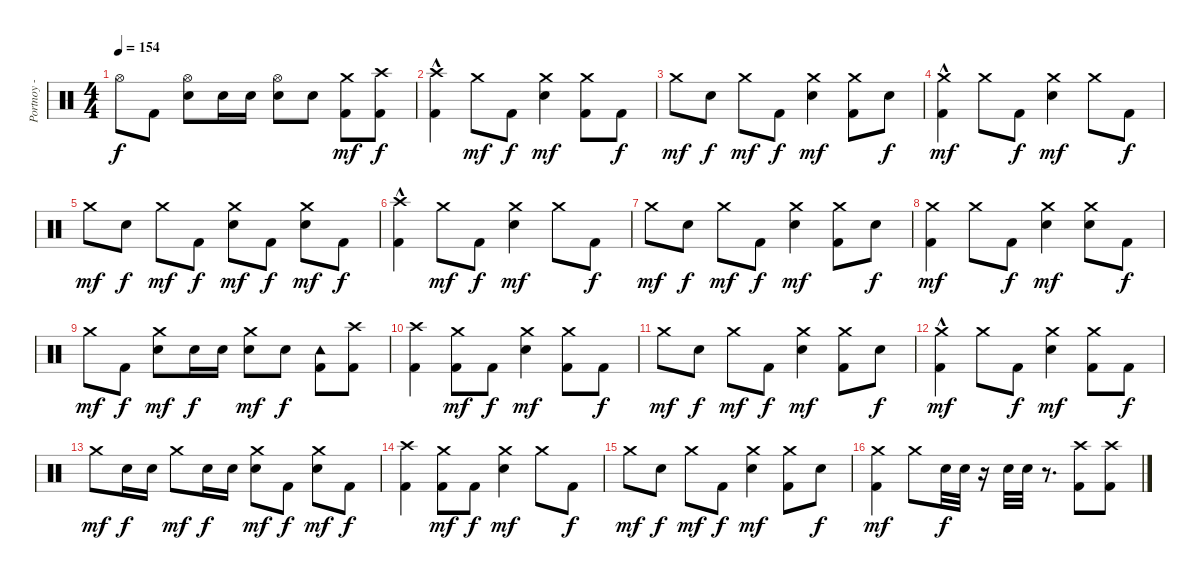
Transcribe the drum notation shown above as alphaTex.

\track ("Portnoy - Drums" "Portnoy - ") {instrument percussion}
\staff {score}
\articulation defaults
\ts (4 4)
\tempo 154
\clef neutral
\ks c "Hi-Hat (open)".8{dy f} "Kick (hit) 2".8
("Electric Snare (hit)" "Hi-Hat (open)").8 "Electric Snare (hit)".16 "Electric Snare (hit)".16 ("Electric Snare (hit)" "Hi-Hat (open)").8 "Electric Snare (hit)".8 ("Kick (hit) 2" "Crash medium (hit)").8{dy mf} ("Kick (hit) 2" "Crash high (hit)").8{dy f} |
("Kick (hit) 2"{hac} "Crash high (hit)").4 "Crash medium (hit)".8{dy mf} "Kick (hit) 2".8{dy f} ("Electric Snare (hit)" "Crash medium (hit)").4{dy mf} ("Kick (hit) 2" "Crash medium (hit)").8 "Kick (hit) 2".8{dy f} |
"Crash medium (hit)".8{dy mf} "Electric Snare (hit)".8{dy f} "Crash medium (hit)".8{dy mf} "Kick (hit) 2".8{dy f} ("Electric Snare (hit)" "Crash medium (hit)").4{dy mf} ("Kick (hit) 2" "Crash medium (hit)").8 "Electric Snare (hit)".8{dy f} |
("Kick (hit) 2"{hac} "Crash medium (hit)").4{dy mf} "Crash medium (hit)".8 "Kick (hit) 2".8{dy f} ("Electric Snare (hit)" "Crash medium (hit)").4{dy mf} "Crash medium (hit)".8 "Kick (hit) 2".8{dy f} |
"Crash medium (hit)".8{dy mf} "Electric Snare (hit)".8{dy f} "Crash medium (hit)".8{dy mf} "Kick (hit) 2".8{dy f} ("Electric Snare (hit)" "Crash medium (hit)").8{dy mf} "Kick (hit) 2".8{dy f} ("Electric Snare (hit)" "Crash medium (hit)").8{dy mf} "Kick (hit) 2".8{dy f} |
("Kick (hit) 2"{hac} "Crash high (hit)").4 "Crash medium (hit)".8{dy mf} "Kick (hit) 2".8{dy f} ("Electric Snare (hit)" "Crash medium (hit)").4{dy mf} "Crash medium (hit)".8 "Kick (hit) 2".8{dy f} |
"Crash medium (hit)".8{dy mf} "Electric Snare (hit)".8{dy f} "Crash medium (hit)".8{dy mf} "Kick (hit) 2".8{dy f} ("Electric Snare (hit)" "Crash medium (hit)").4{dy mf} ("Kick (hit) 2" "Crash medium (hit)").8 "Electric Snare (hit)".8{dy f} |
("Kick (hit) 2" "Crash medium (hit)").4{dy mf} "Crash medium (hit)".8 "Kick (hit) 2".8{dy f} ("Electric Snare (hit)" "Crash medium (hit)").4{dy mf} ("Electric Snare (hit)" "Crash medium (hit)").8 "Kick (hit) 2".8{dy f} |
"Crash medium (hit)".8{dy mf} "Kick (hit) 2".8{dy f} ("Electric Snare (hit)" "Crash medium (hit)").8{dy mf} "Electric Snare (hit)".16{dy f} "Electric Snare (hit)".16 ("Electric Snare (hit)" "Crash medium (hit)").8{dy mf} "Electric Snare (hit)".8{dy f} ("Kick (hit) 2" "Tambourine (hit)").8 ("Kick (hit) 2" "Crash high (hit)").8 |
("Crash high (hit)" "Kick (hit) 2").4 ("Kick (hit) 2" "Crash medium (hit)").8{dy mf} "Kick (hit) 2".8{dy f} ("Electric Snare (hit)" "Crash medium (hit)").4{dy mf} ("Kick (hit) 2" "Crash medium (hit)").8 "Kick (hit) 2".8{dy f} |
"Crash medium (hit)".8{dy mf} "Electric Snare (hit)".8{dy f} "Crash medium (hit)".8{dy mf} "Kick (hit) 2".8{dy f} ("Electric Snare (hit)" "Crash medium (hit)").4{dy mf} ("Kick (hit) 2" "Crash medium (hit)").8 "Electric Snare (hit)".8{dy f} |
("Kick (hit) 2"{hac} "Crash medium (hit)").4{dy mf} "Crash medium (hit)".8 "Kick (hit) 2".8{dy f} ("Electric Snare (hit)" "Crash medium (hit)").4{dy mf} ("Kick (hit) 2" "Crash medium (hit)").8 "Kick (hit) 2".8{dy f} |
"Crash medium (hit)".8{dy mf} "Electric Snare (hit)".16{dy f} "Electric Snare (hit)".16 "Crash medium (hit)".8{dy mf} "Electric Snare (hit)".16{dy f} "Electric Snare (hit)".16 ("Electric Snare (hit)" "Crash medium (hit)").8{dy mf} "Kick (hit) 2".8{dy f} ("Electric Snare (hit)" "Crash medium (hit)").8{dy mf} "Kick (hit) 2".8{dy f} |
("Crash high (hit)" "Kick (hit) 2").4 ("Kick (hit) 2" "Crash medium (hit)").8{dy mf} "Kick (hit) 2".8{dy f} ("Electric Snare (hit)" "Crash medium (hit)").4{dy mf} "Crash medium (hit)".8 "Kick (hit) 2".8{dy f} |
"Crash medium (hit)".8{dy mf} "Electric Snare (hit)".8{dy f} "Crash medium (hit)".8{dy mf} "Kick (hit) 2".8{dy f} ("Electric Snare (hit)" "Crash medium (hit)").4{dy mf} ("Kick (hit) 2" "Crash medium (hit)").8 "Electric Snare (hit)".8{dy f} |
("Kick (hit) 2" "Crash medium (hit)").4{dy mf} "Crash medium (hit)".8 "Electric Snare (hit)".32{dy f} "Electric Snare (hit)".32 r.16 "Electric Snare (hit)".32 "Electric Snare (hit)".32 r.8{d} ("Kick (hit) 2" "Crash high (hit)").8 ("Kick (hit) 2" "Crash high (hit)").8
